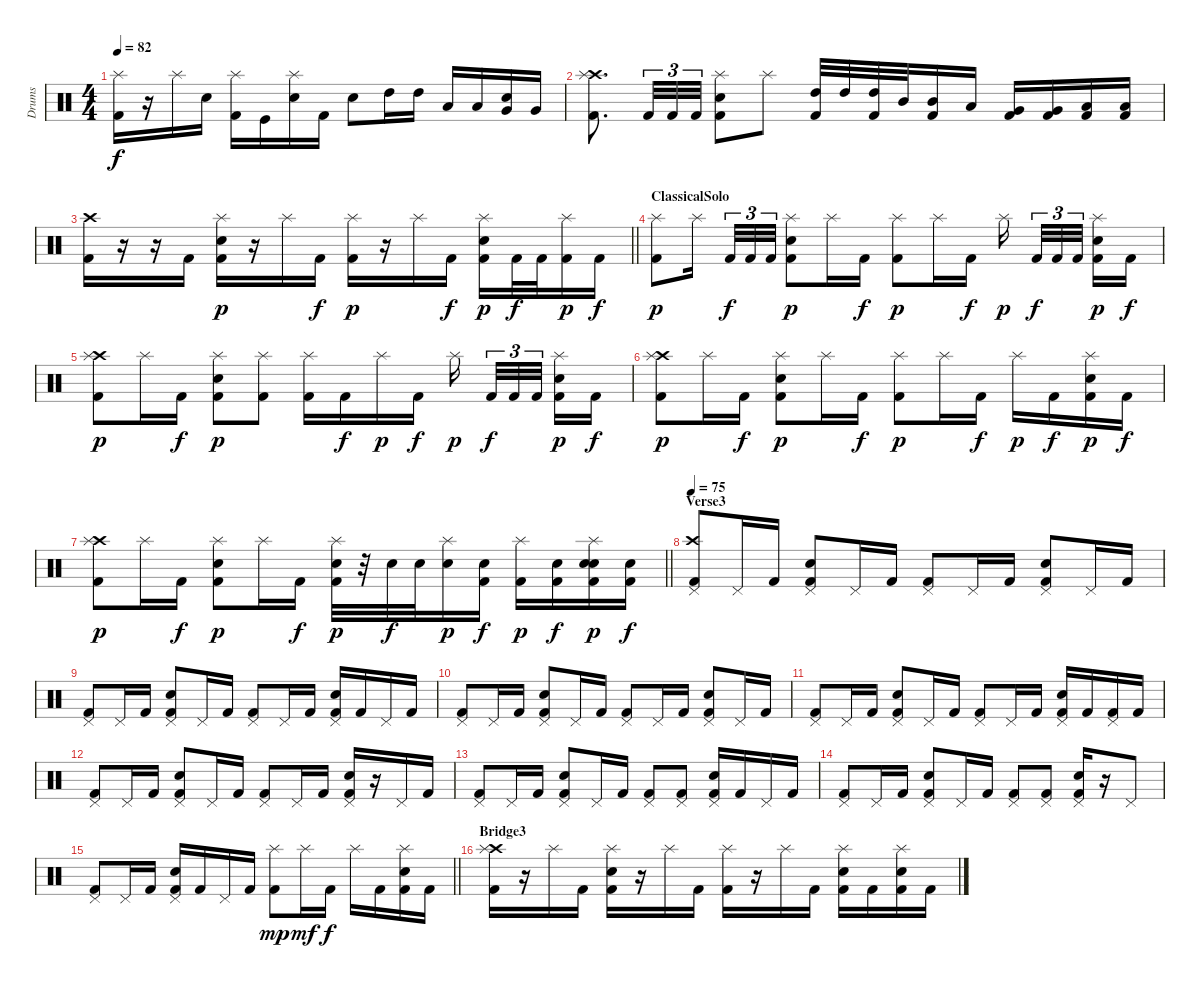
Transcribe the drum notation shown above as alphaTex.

\track ("Drums" "Drums") {instrument percussion}
\staff {score}
\articulation defaults
\ts (4 4)
\tempo 82
\clef neutral
\ks c
("Splash (hit)" "Kick (hit) 2").16{dy f} r.16 "Splash (hit)".16 "Snare (hit) 2".16 ("Splash (hit)" "Kick (hit) 2").16 "Kick (hit)".16 ("Splash (hit)" "Snare (hit) 2").16 "Kick (hit) 2".16 "Snare (hit) 2".8 "High Tom (hit)".16 "High Tom (hit)".16 "Low Tom (hit)".16 "Low Tom (hit)".16 ("Snare (hit) 2" "Very Low Tom (hit)").16 "Very Low Tom (hit)".16 |
("Crash high (hit)" "Splash (hit)" "Kick (hit) 2").8{d} "Kick (hit) 2".32{tu (3 2)} "Kick (hit) 2".32{tu (3 2)} "Kick (hit) 2".32{tu (3 2)} ("Splash (hit)" "Snare (hit) 2" "Kick (hit) 2").8 "Splash (hit)".8 ("Kick (hit) 2" "High Tom (hit)").32 "High Tom (hit)".32 ("Kick (hit) 2" "High Tom (hit)").32 "Mid Tom (hit)".32 ("Kick (hit) 2" "Mid Tom (hit)").16 "Low Tom (hit)".16 ("Very Low Tom (hit)" "Kick (hit) 2").16 ("Very Low Tom (hit)" "Kick (hit) 2").16 ("Low Floor Tom (hit)" "Kick (hit) 2").16 ("Low Floor Tom (hit)" "Kick (hit) 2").16 |
\barLineRight lightlight
("Crash high (hit)" "Kick (hit) 2").16 r.16 r.16 "Kick (hit) 2".16 ("Splash (hit)" "Snare (hit) 2" "Kick (hit) 2").16{dy p} r.16 "Splash (hit)".16 "Kick (hit) 2".16{dy f} ("Splash (hit)" "Kick (hit) 2").16{dy p} r.16 "Splash (hit)".16 "Kick (hit) 2".16{dy f} ("Splash (hit)" "Snare (hit) 2" "Kick (hit) 2").16{dy p} "Kick (hit) 2".32{dy f} "Kick (hit) 2".32 ("Splash (hit)" "Kick (hit) 2").16{dy p} "Kick (hit) 2".16{dy f} |
\section ("" "ClassicalSolo")
("Splash (hit)" "Kick (hit) 2").8{dy p} "Splash (hit)".16{beam splitsecondary} "Kick (hit) 2".32{tu (3 2) dy f} "Kick (hit) 2".32{tu (3 2)} "Kick (hit) 2".32{tu (3 2)} ("Splash (hit)" "Snare (hit) 2" "Kick (hit) 2").8{dy p} "Splash (hit)".16 "Kick (hit) 2".16{dy f} ("Splash (hit)" "Kick (hit) 2").8{dy p} "Splash (hit)".16 "Kick (hit) 2".16{dy f} "Splash (hit)".16{dy p beam splitsecondary} "Kick (hit) 2".32{tu (3 2) dy f} "Kick (hit) 2".32{tu (3 2)} "Kick (hit) 2".32{tu (3 2) beam splitsecondary} ("Splash (hit)" "Snare (hit) 2" "Kick (hit) 2").16{dy p} "Kick (hit) 2".16{dy f} |
("Crash high (hit)" "Splash (hit)" "Kick (hit) 2").8{dy p} "Splash (hit)".16 "Kick (hit) 2".16{dy f} ("Splash (hit)" "Snare (hit) 2" "Kick (hit) 2").8{dy p} ("Splash (hit)" "Kick (hit) 2").8 ("Splash (hit)" "Kick (hit) 2").16 "Kick (hit) 2".16{dy f} "Splash (hit)".16{dy p} "Kick (hit) 2".16{dy f} "Splash (hit)".16{dy p beam splitsecondary} "Kick (hit) 2".32{tu (3 2) dy f} "Kick (hit) 2".32{tu (3 2)} "Kick (hit) 2".32{tu (3 2) beam splitsecondary} ("Splash (hit)" "Snare (hit) 2" "Kick (hit) 2").16{dy p} "Kick (hit) 2".16{dy f} |
("Crash high (hit)" "Splash (hit)" "Kick (hit) 2").8{dy p} "Splash (hit)".16 "Kick (hit) 2".16{dy f} ("Splash (hit)" "Snare (hit) 2" "Kick (hit) 2").8{dy p} "Splash (hit)".16 "Kick (hit) 2".16{dy f} ("Splash (hit)" "Kick (hit) 2").8{dy p} "Splash (hit)".16 "Kick (hit) 2".16{dy f} "Splash (hit)".16{dy p} "Kick (hit) 2".16{dy f} ("Splash (hit)" "Snare (hit) 2" "Kick (hit) 2").16{dy p} "Kick (hit) 2".16{dy f} |
\barLineRight lightlight
("Crash high (hit)" "Splash (hit)" "Kick (hit) 2").8{dy p} "Splash (hit)".16 "Kick (hit) 2".16{dy f} ("Splash (hit)" "Snare (hit) 2" "Kick (hit) 2").8{dy p} "Splash (hit)".16 "Kick (hit) 2".16{dy f} ("Splash (hit)" "Snare (hit) 2" "Kick (hit) 2").32{dy p} r.32 "Snare (hit) 2".32{dy f} "Snare (hit) 2".32 ("Splash (hit)" "Snare (hit) 2").16{dy p} ("Snare (hit) 2" "Kick (hit) 2").16{dy f} ("Splash (hit)" "Kick (hit) 2").16{dy p} ("Snare (hit) 2" "Kick (hit) 2").16{dy f} ("Splash (hit)" "Snare (hit) 2" "Snare (hit) 2" "Kick (hit) 2").16{dy p} ("Snare (hit) 2" "Kick (hit) 2").16{dy f} |
\section ("" "Verse3")
\tempo 75
("Crash high (hit)" "Pedal Hi-Hat (hit)" "Kick (hit) 2").8 "Pedal Hi-Hat (hit)".16 "Kick (hit) 2".16 ("Pedal Hi-Hat (hit)" "Snare (hit) 2" "Kick (hit) 2").8 "Pedal Hi-Hat (hit)".16 "Kick (hit) 2".16 ("Pedal Hi-Hat (hit)" "Kick (hit) 2").8 "Pedal Hi-Hat (hit)".16 "Kick (hit) 2".16 ("Pedal Hi-Hat (hit)" "Snare (hit) 2" "Kick (hit) 2").8 "Pedal Hi-Hat (hit)".16 "Kick (hit) 2".16 |
("Pedal Hi-Hat (hit)" "Kick (hit) 2").8 "Pedal Hi-Hat (hit)".16 "Kick (hit) 2".16 ("Pedal Hi-Hat (hit)" "Snare (hit) 2" "Kick (hit) 2").8 "Pedal Hi-Hat (hit)".16 "Kick (hit) 2".16 ("Pedal Hi-Hat (hit)" "Kick (hit) 2").8 "Pedal Hi-Hat (hit)".16 "Kick (hit) 2".16 ("Pedal Hi-Hat (hit)" "Snare (hit) 2" "Kick (hit) 2").16 "Kick (hit) 2".16 "Pedal Hi-Hat (hit)".16 "Kick (hit) 2".16 |
("Pedal Hi-Hat (hit)" "Kick (hit) 2").8 "Pedal Hi-Hat (hit)".16 "Kick (hit) 2".16 ("Pedal Hi-Hat (hit)" "Snare (hit) 2" "Kick (hit) 2").8 "Pedal Hi-Hat (hit)".16 "Kick (hit) 2".16 ("Pedal Hi-Hat (hit)" "Kick (hit) 2").8 "Pedal Hi-Hat (hit)".16 "Kick (hit) 2".16 ("Pedal Hi-Hat (hit)" "Snare (hit) 2" "Kick (hit) 2").8 "Pedal Hi-Hat (hit)".16 "Kick (hit) 2".16 |
("Pedal Hi-Hat (hit)" "Kick (hit) 2").8 "Pedal Hi-Hat (hit)".16 "Kick (hit) 2".16 ("Pedal Hi-Hat (hit)" "Snare (hit) 2" "Kick (hit) 2").8 "Pedal Hi-Hat (hit)".16 "Kick (hit) 2".16 ("Pedal Hi-Hat (hit)" "Kick (hit) 2").8 "Pedal Hi-Hat (hit)".16 "Kick (hit) 2".16 ("Pedal Hi-Hat (hit)" "Snare (hit) 2" "Kick (hit) 2").16 "Kick (hit) 2".16 ("Pedal Hi-Hat (hit)" "Kick (hit) 2").16 "Kick (hit) 2".16 |
("Pedal Hi-Hat (hit)" "Kick (hit) 2").8 "Pedal Hi-Hat (hit)".16 "Kick (hit) 2".16 ("Pedal Hi-Hat (hit)" "Snare (hit) 2" "Kick (hit) 2").8 "Pedal Hi-Hat (hit)".16 "Kick (hit) 2".16 ("Pedal Hi-Hat (hit)" "Kick (hit) 2").8 "Pedal Hi-Hat (hit)".16 "Kick (hit) 2".16 ("Pedal Hi-Hat (hit)" "Snare (hit) 2" "Kick (hit) 2").16 r.16 "Pedal Hi-Hat (hit)".16 "Kick (hit) 2".16 |
("Pedal Hi-Hat (hit)" "Kick (hit) 2").8 "Pedal Hi-Hat (hit)".16 "Kick (hit) 2".16 ("Pedal Hi-Hat (hit)" "Snare (hit) 2" "Kick (hit) 2").8 "Pedal Hi-Hat (hit)".16 "Kick (hit) 2".16 ("Pedal Hi-Hat (hit)" "Kick (hit) 2").8 ("Pedal Hi-Hat (hit)" "Kick (hit) 2").8 ("Pedal Hi-Hat (hit)" "Snare (hit) 2" "Kick (hit) 2").16 "Kick (hit) 2".16 "Pedal Hi-Hat (hit)".16 "Kick (hit) 2".16 |
("Pedal Hi-Hat (hit)" "Kick (hit) 2").8 "Pedal Hi-Hat (hit)".16 "Kick (hit) 2".16 ("Pedal Hi-Hat (hit)" "Snare (hit) 2" "Kick (hit) 2").8 "Pedal Hi-Hat (hit)".16 "Kick (hit) 2".16 ("Pedal Hi-Hat (hit)" "Kick (hit) 2").8 ("Pedal Hi-Hat (hit)" "Kick (hit) 2").8 ("Pedal Hi-Hat (hit)" "Snare (hit) 2" "Kick (hit) 2").16 r.16 "Pedal Hi-Hat (hit)".8 |
\barLineRight lightlight
("Pedal Hi-Hat (hit)" "Kick (hit) 2").8 "Pedal Hi-Hat (hit)".16 "Kick (hit) 2".16 ("Pedal Hi-Hat (hit)" "Snare (hit) 2" "Kick (hit) 2").16 "Kick (hit) 2".16 "Pedal Hi-Hat (hit)".16 "Kick (hit) 2".16 ("Splash (hit)" "Kick (hit) 2").8{dy mp} "Splash (hit)".16{dy mf} "Kick (hit) 2".16{dy f} "Splash (hit)".16 "Kick (hit) 2".16 ("Splash (hit)" "Snare (hit) 2" "Kick (hit) 2").16 "Kick (hit) 2".16 |
\section ("" "Bridge3")
("Crash high (hit)" "Splash (hit)" "Kick (hit) 2").16 r.16 "Splash (hit)".16 "Kick (hit) 2".16 ("Splash (hit)" "Snare (hit) 2" "Kick (hit) 2").16 r.16 "Splash (hit)".16 "Kick (hit) 2".16 ("Splash (hit)" "Kick (hit) 2").16 r.16 "Splash (hit)".16 "Kick (hit) 2".16 ("Splash (hit)" "Snare (hit) 2" "Kick (hit) 2").16 "Kick (hit) 2".16 ("Splash (hit)" "Snare (hit) 2" "Kick (hit) 2").16 "Kick (hit) 2".16
